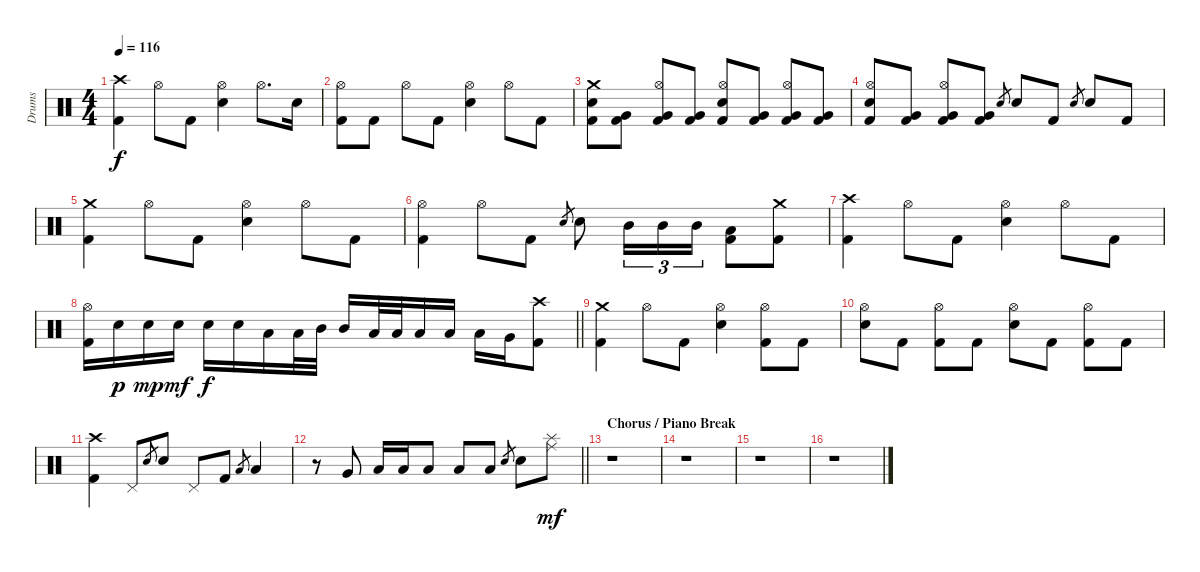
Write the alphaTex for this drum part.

\track ("Drums" "Drums") {instrument percussion}
\staff {score}
\articulation defaults
\ts (4 4)
\tempo 116
\clef neutral
\ks c
("Crash high (hit)" "Kick (hit) 2").4{dy f} "Hi-Hat (open)".8 "Kick (hit) 2".8 ("Hi-Hat (open)" "Electric Snare (hit)").4 "Hi-Hat (open)".8{d} "Snare (hit) 2".16 |
("Hi-Hat (open)" "Kick (hit) 2").8 "Kick (hit) 2".8 "Hi-Hat (open)".8 "Kick (hit) 2".8 ("Hi-Hat (open)" "Snare (hit) 2").4 "Hi-Hat (open)".8 "Kick (hit) 2".8 |
("Crash medium (hit)" "Electric Snare (hit)" "Kick (hit) 2").8 ("Very Low Tom (hit)" "Kick (hit) 2").8 ("Hi-Hat (open)" "Very Low Tom (hit)" "Kick (hit) 2").8 ("Very Low Tom (hit)" "Kick (hit) 2").8 ("Hi-Hat (open)" "Electric Snare (hit)" "Kick (hit) 2").8 ("Very Low Tom (hit)" "Kick (hit) 2").8 ("Hi-Hat (open)" "Very Low Tom (hit)" "Kick (hit) 2").8 ("Very Low Tom (hit)" "Kick (hit) 2").8 |
("Hi-Hat (open)" "Electric Snare (hit)" "Kick (hit) 2").8 ("Very Low Tom (hit)" "Kick (hit) 2").8 ("Hi-Hat (open)" "Very Low Tom (hit)" "Kick (hit) 2").8 ("Very Low Tom (hit)" "Kick (hit) 2").8 "Electric Snare (hit)".8{gr} "Electric Snare (hit)".8 "Kick (hit) 2".8 "Electric Snare (hit)".8{gr} "Electric Snare (hit)".8 "Kick (hit) 2".8 |
("Crash medium (hit)" "Kick (hit) 2").4 "Hi-Hat (open)".8 "Kick (hit) 2".8 ("Hi-Hat (open)" "Electric Snare (hit)").4 "Hi-Hat (open)".8 "Kick (hit) 2".8 |
("Hi-Hat (open)" "Kick (hit) 2").4 "Hi-Hat (open)".8 "Kick (hit) 2".8 "Electric Snare (hit)".8{gr} "Electric Snare (hit)".8 "Mid Tom (hit)".16{tu (3 2)} "Mid Tom (hit)".16{tu (3 2)} "Mid Tom (hit)".16{tu (3 2)} ("Low Tom (hit)" "Kick (hit) 2").8 ("Crash medium (hit)" "Kick (hit) 2").8 |
("Crash high (hit)" "Kick (hit) 2").4 "Hi-Hat (open)".8 "Kick (hit) 2".8 ("Hi-Hat (open)" "Electric Snare (hit)").4 "Hi-Hat (open)".8 "Kick (hit) 2".8 |
\barLineRight lightlight
("Hi-Hat (open)" "Kick (hit) 2").16 "Electric Snare (hit)".16{dy p} "Electric Snare (hit)".16{dy mp} "Electric Snare (hit)".16{dy mf} "Electric Snare (hit)".16{dy f} "Electric Snare (hit)".16 "Low Floor Tom (hit)".16 "Low Floor Tom (hit)".32 "Mid Tom (hit)".32 "Mid Tom (hit)".16 "Low Tom (hit)".32 "Low Tom (hit)".32 "Low Tom (hit)".16 "Low Tom (hit)".16 "Low Tom (hit)".16 "Very Low Tom (hit)".16 ("Crash high (hit)" "Kick (hit) 2").8 |
("Crash medium (hit)" "Kick (hit) 2").4 "Hi-Hat (open)".8 "Kick (hit) 2".8 ("Hi-Hat (open)" "Electric Snare (hit)").4 ("Hi-Hat (open)" "Kick (hit) 2").8 "Kick (hit) 2".8 |
("Hi-Hat (open)" "Electric Snare (hit)").8 "Kick (hit) 2".8 ("Hi-Hat (open)" "Kick (hit) 2").8 "Kick (hit) 2".8 ("Hi-Hat (open)" "Electric Snare (hit)").8 "Kick (hit) 2".8 ("Hi-Hat (open)" "Kick (hit) 2").8 "Kick (hit) 2".8 |
("Crash high (hit)" "Kick (hit) 2").4 "Pedal Hi-Hat (hit)".8 "Electric Snare (hit)".8{gr} "Electric Snare (hit)".8 "Pedal Hi-Hat (hit)".8 "Kick (hit) 2".8 "Low Tom (hit)".8{gr} "Low Tom (hit)".4 |
\barLineRight lightlight
r.8 "Very Low Tom (hit)".8 "Low Floor Tom (hit)".16 "Low Floor Tom (hit)".16 "Low Floor Tom (hit)".8 "Low Floor Tom (hit)".8 "Low Floor Tom (hit)".8 "Electric Snare (hit)".8{gr} "Electric Snare (hit)".8 ("Splash (hit)" "Ride (middle)").8{dy mf} |
\section ("" "Chorus / Piano Break")
r.1 |
r.1 |
r.1 |
r.1
